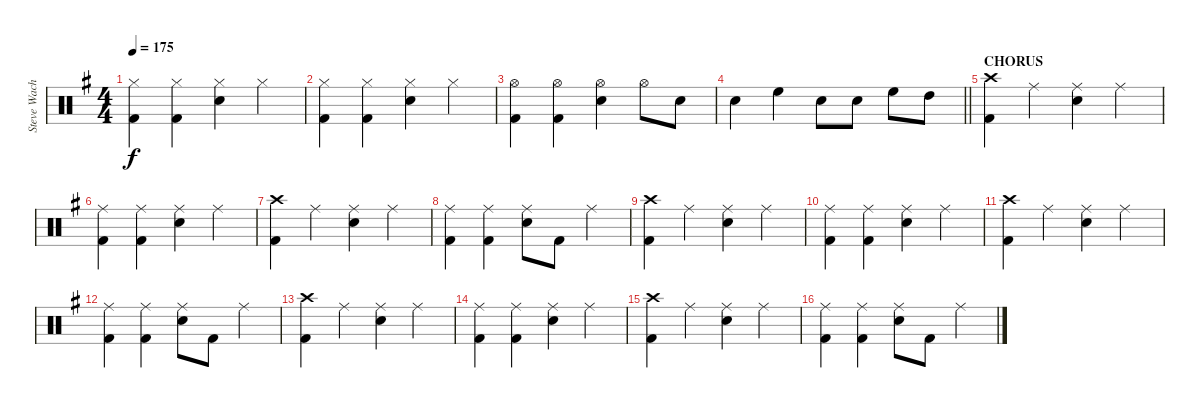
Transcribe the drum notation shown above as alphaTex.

\track ("Steve Wacholz" "Steve Wach") {instrument percussion}
\staff {score}
\articulation defaults
\ts (4 4)
\tempo 175
\clef neutral
\ks eminor
("Hi-Hat (closed)" "Kick (hit) 2").4{dy f} ("Hi-Hat (closed)" "Kick (hit) 2").4 ("Hi-Hat (closed)" "Electric Snare (hit)").4 "Hi-Hat (closed)".4 |
("Hi-Hat (closed)" "Kick (hit) 2").4 ("Hi-Hat (closed)" "Kick (hit) 2").4 ("Hi-Hat (closed)" "Electric Snare (hit)").4 "Hi-Hat (closed)".4 |
("Hi-Hat (open)" "Kick (hit) 2").4 ("Hi-Hat (open)" "Kick (hit) 2").4 ("Hi-Hat (open)" "Electric Snare (hit)").4 "Hi-Hat (open)".8 "Electric Snare (hit)".8 |
\barLineRight lightlight "Electric Snare (hit)".4 "High Floor Tom (hit)".4 "Electric Snare (hit)".8 "Electric Snare (hit)".8 "High Floor Tom (hit)".8 "High Tom (hit)".8
|
\section ("" "CHORUS")
("Crash high (hit)" "Kick (hit) 2").4 "Ride (middle)".4 ("Ride (middle)" "Electric Snare (hit)").4 "Ride (middle)".4 |
("Ride (middle)" "Kick (hit) 2").4 ("Ride (middle)" "Kick (hit) 2").4 ("Ride (middle)" "Electric Snare (hit)").4 "Ride (middle)".4 |
("Crash high (hit)" "Kick (hit) 2").4 "Ride (middle)".4 ("Ride (middle)" "Electric Snare (hit)").4 "Ride (middle)".4 |
("Ride (middle)" "Kick (hit) 2").4 ("Ride (middle)" "Kick (hit) 2").4 ("Ride (middle)" "Electric Snare (hit)").8 "Kick (hit) 2".8 "Ride (middle)".4 |
("Crash high (hit)" "Kick (hit) 2").4 "Ride (middle)".4 ("Ride (middle)" "Electric Snare (hit)").4 "Ride (middle)".4 |
("Ride (middle)" "Kick (hit) 2").4 ("Ride (middle)" "Kick (hit) 2").4 ("Ride (middle)" "Electric Snare (hit)").4 "Ride (middle)".4 |
("Crash high (hit)" "Kick (hit) 2").4 "Ride (middle)".4 ("Ride (middle)" "Electric Snare (hit)").4 "Ride (middle)".4 |
("Ride (middle)" "Kick (hit) 2").4 ("Ride (middle)" "Kick (hit) 2").4 ("Ride (middle)" "Electric Snare (hit)").8 "Kick (hit) 2".8 "Ride (middle)".4 |
("Crash high (hit)" "Kick (hit) 2").4 "Ride (middle)".4 ("Ride (middle)" "Electric Snare (hit)").4 "Ride (middle)".4 |
("Ride (middle)" "Kick (hit) 2").4 ("Ride (middle)" "Kick (hit) 2").4 ("Ride (middle)" "Electric Snare (hit)").4 "Ride (middle)".4 |
("Crash high (hit)" "Kick (hit) 2").4 "Ride (middle)".4 ("Ride (middle)" "Electric Snare (hit)").4 "Ride (middle)".4 |
("Ride (middle)" "Kick (hit) 2").4 ("Ride (middle)" "Kick (hit) 2").4 ("Ride (middle)" "Electric Snare (hit)").8 "Kick (hit) 2".8 "Ride (middle)".4
